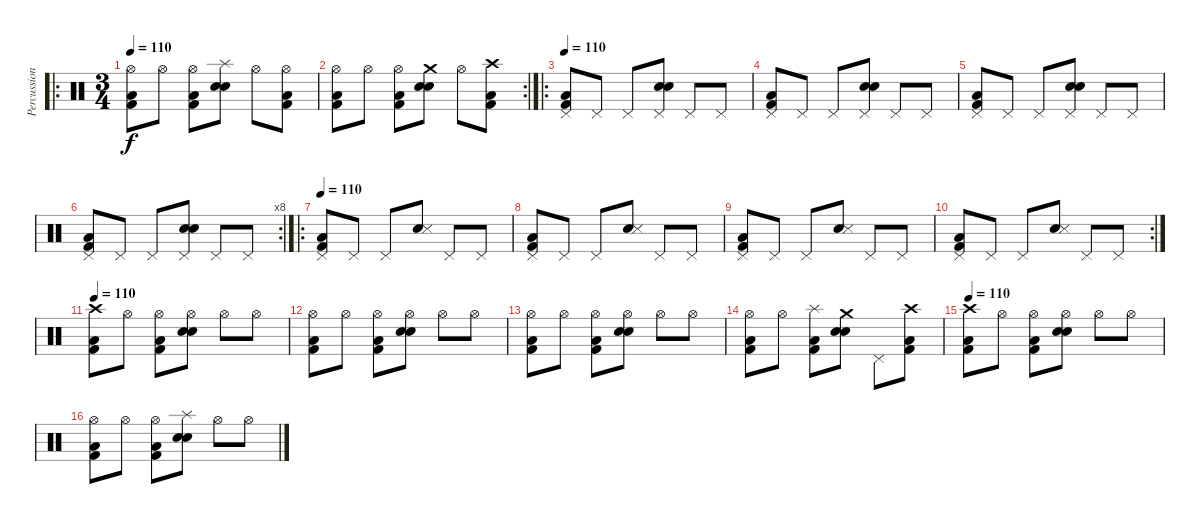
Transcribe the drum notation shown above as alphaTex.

\track ("Percussions" "Percussion") {instrument percussion}
\staff {score}
\articulation defaults
\ro
\ts (3 4)
\tempo 110
\clef neutral
\ks c
("Hi-Hat (open)" "Kick (hit) 2" "Low Floor Tom (hit)").8{dy f} "Hi-Hat (open)".8 ("Hi-Hat (open)" "Kick (hit) 2" "Low Floor Tom (hit)").8 ("Splash (hit)" "Snare (hit) 2" "Electric Snare (hit)").8 "Hi-Hat (open)".8 ("Hi-Hat (open)" "Kick (hit) 2" "Low Floor Tom (hit)").8 |
\rc 2
("Hi-Hat (open)" "Kick (hit) 2" "Low Floor Tom (hit)").8 "Hi-Hat (open)".8 ("Hi-Hat (open)" "Kick (hit) 2" "Low Floor Tom (hit)").8 ("Crash medium (hit)" "Snare (hit) 2" "Electric Snare (hit)").8 "Hi-Hat (open)".8 ("Crash high (hit)" "Kick (hit) 2" "Low Floor Tom (hit)").8 |
\ro
\tempo 110
("Pedal Hi-Hat (hit)" "Kick (hit) 2" "Low Floor Tom (hit)").8 "Pedal Hi-Hat (hit)".8 "Pedal Hi-Hat (hit)".8 ("Pedal Hi-Hat (hit)" "Snare (hit) 2" "Electric Snare (hit)").8 "Pedal Hi-Hat (hit)".8 "Pedal Hi-Hat (hit)".8 |
("Pedal Hi-Hat (hit)" "Kick (hit) 2" "Low Floor Tom (hit)").8 "Pedal Hi-Hat (hit)".8 "Pedal Hi-Hat (hit)".8 ("Pedal Hi-Hat (hit)" "Snare (hit) 2" "Electric Snare (hit)").8 "Pedal Hi-Hat (hit)".8 "Pedal Hi-Hat (hit)".8 |
("Pedal Hi-Hat (hit)" "Kick (hit) 2" "Low Floor Tom (hit)").8 "Pedal Hi-Hat (hit)".8 "Pedal Hi-Hat (hit)".8 ("Pedal Hi-Hat (hit)" "Snare (hit) 2" "Electric Snare (hit)").8 "Pedal Hi-Hat (hit)".8 "Pedal Hi-Hat (hit)".8 |
\rc 8
("Pedal Hi-Hat (hit)" "Kick (hit) 2" "Low Floor Tom (hit)").8 "Pedal Hi-Hat (hit)".8 "Pedal Hi-Hat (hit)".8 ("Pedal Hi-Hat (hit)" "Snare (hit) 2" "Electric Snare (hit)").8 "Pedal Hi-Hat (hit)".8 "Pedal Hi-Hat (hit)".8 |
\ro
\tempo 110
("Pedal Hi-Hat (hit)" "Kick (hit) 2" "Low Floor Tom (hit)").8 "Pedal Hi-Hat (hit)".8 "Pedal Hi-Hat (hit)".8 ("Electric Snare (hit)" "Snare (side stick) 3").8 "Pedal Hi-Hat (hit)".8 "Pedal Hi-Hat (hit)".8 |
("Pedal Hi-Hat (hit)" "Kick (hit) 2" "Low Floor Tom (hit)").8 "Pedal Hi-Hat (hit)".8 "Pedal Hi-Hat (hit)".8 ("Electric Snare (hit)" "Snare (side stick) 3").8 "Pedal Hi-Hat (hit)".8 "Pedal Hi-Hat (hit)".8 |
("Pedal Hi-Hat (hit)" "Kick (hit) 2" "Low Floor Tom (hit)").8 "Pedal Hi-Hat (hit)".8 "Pedal Hi-Hat (hit)".8 ("Electric Snare (hit)" "Snare (side stick) 3").8 "Pedal Hi-Hat (hit)".8 "Pedal Hi-Hat (hit)".8 |
\rc 2
("Pedal Hi-Hat (hit)" "Kick (hit) 2" "Low Floor Tom (hit)").8 "Pedal Hi-Hat (hit)".8 "Pedal Hi-Hat (hit)".8 ("Electric Snare (hit)" "Snare (side stick) 3").8 "Pedal Hi-Hat (hit)".8 "Pedal Hi-Hat (hit)".8 |
\tempo 110
("Crash high (hit)" "Kick (hit) 2" "Low Floor Tom (hit)").8 "Hi-Hat (open)".8 ("Hi-Hat (open)" "Kick (hit) 2" "Low Floor Tom (hit)").8 ("Hi-Hat (open)" "Snare (hit) 2" "Electric Snare (hit)").8 "Hi-Hat (open)".8 "Hi-Hat (open)".8 |
("Hi-Hat (open)" "Kick (hit) 2" "Low Floor Tom (hit)").8 "Hi-Hat (open)".8 ("Hi-Hat (open)" "Kick (hit) 2" "Low Floor Tom (hit)").8 ("Hi-Hat (open)" "Snare (hit) 2" "Electric Snare (hit)").8 "Hi-Hat (open)".8 "Hi-Hat (open)".8 |
("Hi-Hat (open)" "Kick (hit) 2" "Low Floor Tom (hit)").8 "Hi-Hat (open)".8 ("Hi-Hat (open)" "Kick (hit) 2" "Low Floor Tom (hit)").8 ("Hi-Hat (open)" "Snare (hit) 2" "Electric Snare (hit)").8 "Hi-Hat (open)".8 "Hi-Hat (open)".8 |
("Hi-Hat (open)" "Kick (hit) 2" "Low Floor Tom (hit)").8 "Hi-Hat (open)".8 ("Splash (hit)" "Kick (hit) 2" "Low Floor Tom (hit)").8 ("Crash medium (hit)" "Snare (hit) 2" "Electric Snare (hit)").8 "Pedal Hi-Hat (hit)".8 ("Crash high (hit)" "Kick (hit) 2" "Low Floor Tom (hit)").8 |
\tempo 110
("Crash high (hit)" "Kick (hit) 2" "Low Floor Tom (hit)").8 "Hi-Hat (open)".8 ("Hi-Hat (open)" "Kick (hit) 2" "Low Floor Tom (hit)").8 ("Hi-Hat (open)" "Snare (hit) 2" "Electric Snare (hit)").8 "Hi-Hat (open)".8 "Hi-Hat (open)".8 |
("Hi-Hat (open)" "Kick (hit) 2" "Low Floor Tom (hit)").8 "Hi-Hat (open)".8 ("Hi-Hat (open)" "Kick (hit) 2" "Low Floor Tom (hit)").8 ("Splash (hit)" "Snare (hit) 2" "Electric Snare (hit)").8 "Hi-Hat (open)".8 "Hi-Hat (open)".8
